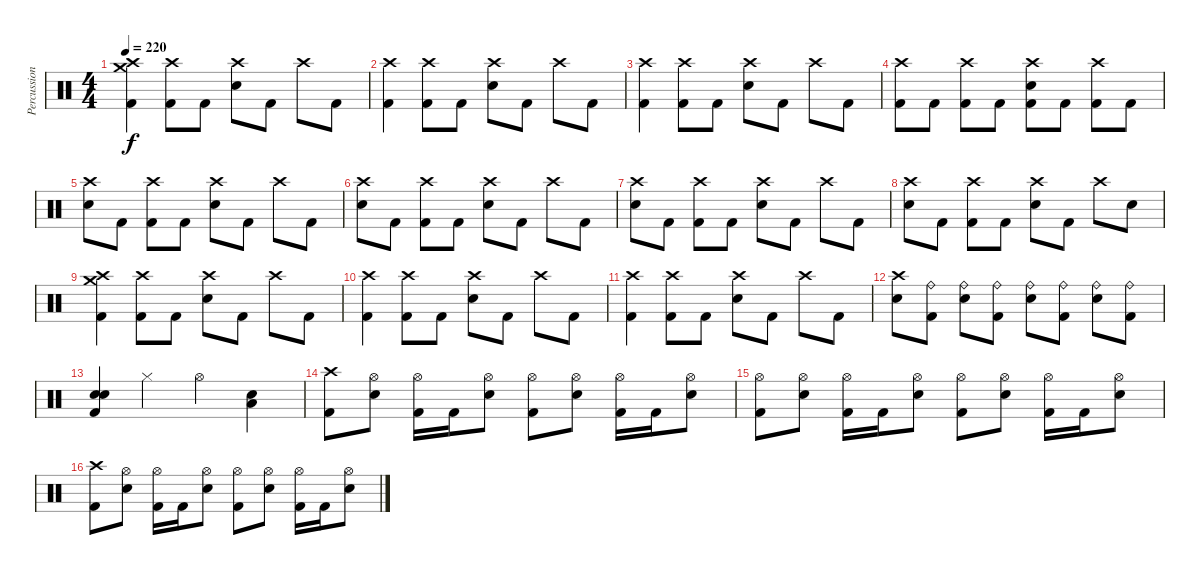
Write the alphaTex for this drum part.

\track ("Percussions" "Percussion") {instrument percussion}
\staff {score}
\articulation defaults
\ts (4 4)
\tempo 220
\clef neutral
\ks c
("Crash high (hit)" "Crash medium (hit)" "Kick (hit) 2").4{dy f} ("Crash high (hit)" "Kick (hit) 2").8 "Kick (hit) 2".8 ("Crash high (hit)" "Snare (hit) 2").8 "Kick (hit) 2".8 "Crash high (hit)".8 "Kick (hit) 2".8 |
("Crash high (hit)" "Kick (hit) 2").4 ("Crash high (hit)" "Kick (hit) 2").8 "Kick (hit) 2".8 ("Crash high (hit)" "Snare (hit) 2").8 "Kick (hit) 2".8 "Crash high (hit)".8 "Kick (hit) 2".8 |
("Crash high (hit)" "Kick (hit) 2").4 ("Crash high (hit)" "Kick (hit) 2").8 "Kick (hit) 2".8 ("Crash high (hit)" "Snare (hit) 2").8 "Kick (hit) 2".8 "Crash high (hit)".8 "Kick (hit) 2".8 |
("Crash high (hit)" "Kick (hit) 2").8 "Kick (hit) 2".8 ("Crash high (hit)" "Kick (hit) 2").8 "Kick (hit) 2".8 ("Crash high (hit)" "Snare (hit) 2" "Kick (hit) 2").8 "Kick (hit) 2".8 ("Crash high (hit)" "Kick (hit) 2").8 "Kick (hit) 2".8 |
("Crash high (hit)" "Snare (hit) 2").8 "Kick (hit) 2".8 ("Crash high (hit)" "Kick (hit) 2").8 "Kick (hit) 2".8 ("Crash high (hit)" "Snare (hit) 2").8 "Kick (hit) 2".8 "Crash high (hit)".8 "Kick (hit) 2".8 |
("Crash high (hit)" "Snare (hit) 2").8 "Kick (hit) 2".8 ("Crash high (hit)" "Kick (hit) 2").8 "Kick (hit) 2".8 ("Crash high (hit)" "Snare (hit) 2").8 "Kick (hit) 2".8 "Crash high (hit)".8 "Kick (hit) 2".8 |
("Crash high (hit)" "Snare (hit) 2").8 "Kick (hit) 2".8 ("Crash high (hit)" "Kick (hit) 2").8 "Kick (hit) 2".8 ("Crash high (hit)" "Snare (hit) 2").8 "Kick (hit) 2".8 "Crash high (hit)".8 "Kick (hit) 2".8 |
("Crash high (hit)" "Snare (hit) 2").8 "Kick (hit) 2".8 ("Crash high (hit)" "Kick (hit) 2").8 "Kick (hit) 2".8 ("Crash high (hit)" "Snare (hit) 2").8 "Kick (hit) 2".8 "Crash high (hit)".8 "Snare (hit) 2".8 |
("Crash high (hit)" "Crash medium (hit)" "Kick (hit) 2").4 ("Crash high (hit)" "Kick (hit) 2").8 "Kick (hit) 2".8 ("Crash high (hit)" "Snare (hit) 2").8 "Kick (hit) 2".8 "Crash high (hit)".8 "Kick (hit) 2".8 |
("Crash high (hit)" "Kick (hit) 2").4 ("Crash high (hit)" "Kick (hit) 2").8 "Kick (hit) 2".8 ("Crash high (hit)" "Snare (hit) 2").8 "Kick (hit) 2".8 "Crash high (hit)".8 "Kick (hit) 2".8 |
("Crash high (hit)" "Kick (hit) 2").4 ("Crash high (hit)" "Kick (hit) 2").8 "Kick (hit) 2".8 ("Crash high (hit)" "Snare (hit) 2").8 "Kick (hit) 2".8 "Crash high (hit)".8 "Kick (hit) 2".8 |
("Crash high (hit)" "Snare (hit) 2").8 ("Ride (bell)" "Kick (hit) 2").8 ("Ride (bell)" "Snare (hit) 2").8 ("Ride (bell)" "Kick (hit) 2").8 ("Ride (bell)" "Snare (hit) 2").8 ("Ride (bell)" "Kick (hit) 2").8 ("Ride (bell)" "Snare (hit) 2").8 ("Ride (bell)" "Kick (hit) 2").8 |
("Snare (hit) 2" "Snare (hit) 2" "Kick (hit) 2").4 "Hi-Hat (closed)".4 "Hi-Hat (open)".4 ("Low Floor Tom (hit)" "Snare (hit) 2").4 |
("Crash high (hit)" "Kick (hit) 2").8 ("Hi-Hat (open)" "Snare (hit) 2").8 ("Hi-Hat (open)" "Kick (hit) 2").16 "Kick (hit) 2".16 ("Hi-Hat (open)" "Snare (hit) 2").8 ("Hi-Hat (open)" "Kick (hit) 2").8 ("Hi-Hat (open)" "Snare (hit) 2").8 ("Hi-Hat (open)" "Kick (hit) 2").16 "Kick (hit) 2".16 ("Hi-Hat (open)" "Snare (hit) 2").8 |
("Hi-Hat (open)" "Kick (hit) 2").8 ("Hi-Hat (open)" "Snare (hit) 2").8 ("Hi-Hat (open)" "Kick (hit) 2").16 "Kick (hit) 2".16 ("Hi-Hat (open)" "Snare (hit) 2").8 ("Hi-Hat (open)" "Kick (hit) 2").8 ("Hi-Hat (open)" "Snare (hit) 2").8 ("Hi-Hat (open)" "Kick (hit) 2").16 "Kick (hit) 2".16 ("Hi-Hat (open)" "Snare (hit) 2").8 |
("Crash high (hit)" "Kick (hit) 2").8 ("Hi-Hat (open)" "Snare (hit) 2").8 ("Hi-Hat (open)" "Kick (hit) 2").16 "Kick (hit) 2".16 ("Hi-Hat (open)" "Snare (hit) 2").8 ("Hi-Hat (open)" "Kick (hit) 2").8 ("Hi-Hat (open)" "Snare (hit) 2").8 ("Hi-Hat (open)" "Kick (hit) 2").16 "Kick (hit) 2".16 ("Hi-Hat (open)" "Snare (hit) 2").8
